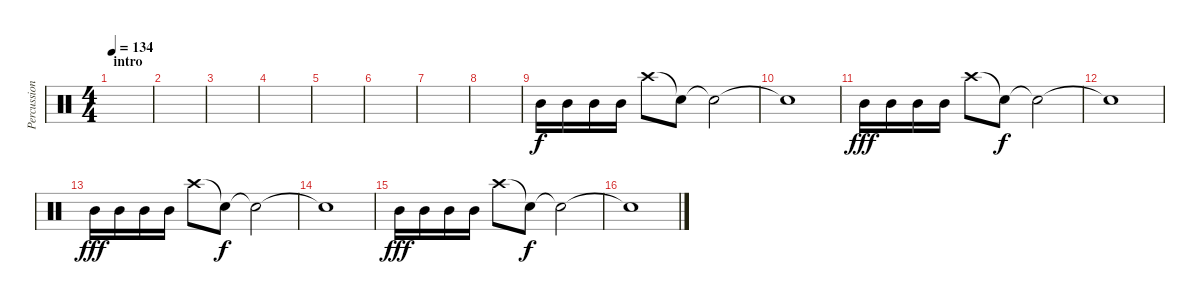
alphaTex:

\track ("Percussion" "Percussion") {instrument percussion}
\staff {score}
\articulation defaults
\ts (4 4)
\section ("" "intro")
\tempo 134
\clef neutral
\ks c
|
|
|
|
|
|
|
|
"Mid Tom (hit)".16{balance 0} "Mid Tom (hit)".16 "Mid Tom (hit)".16 "Mid Tom (hit)".16 "Crash high (hit)".8 "Snare (hit)"{t}.8{dy f} "Snare (hit)"{t}.2 |
"Snare (hit)"{t}.1 |
"Mid Tom (hit)".16{dy fff balance 16} "Mid Tom (hit)".16 "Mid Tom (hit)".16 "Mid Tom (hit)".16 "Crash high (hit)".8 "Snare (hit)"{t}.8{dy f} "Snare (hit)"{t}.2 |
"Snare (hit)"{t}.1 |
"Mid Tom (hit)".16{dy fff balance 0} "Mid Tom (hit)".16 "Mid Tom (hit)".16 "Mid Tom (hit)".16 "Crash high (hit)".8 "Snare (hit)"{t}.8{dy f} "Snare (hit)"{t}.2 |
"Snare (hit)"{t}.1 |
"Mid Tom (hit)".16{dy fff balance 16} "Mid Tom (hit)".16 "Mid Tom (hit)".16 "Mid Tom (hit)".16 "Crash high (hit)".8 "Snare (hit)"{t}.8{dy f} "Snare (hit)"{t}.2 |
"Snare (hit)"{t}.1
